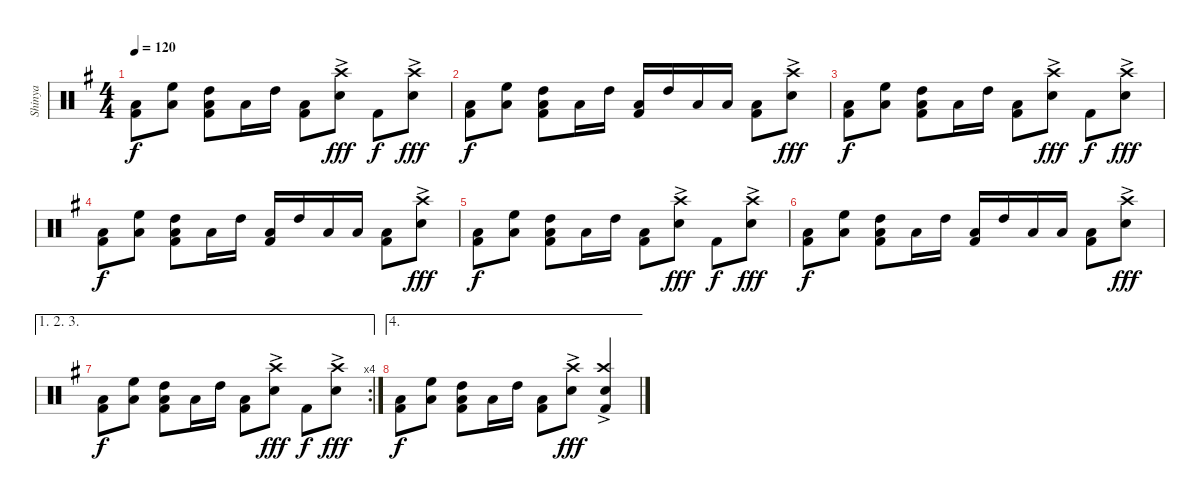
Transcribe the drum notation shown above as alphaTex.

\track ("Shinya" "Shinya") {instrument percussion}
\staff {score}
\articulation defaults
\ts (4 4)
\tempo 120
\clef neutral
\ks g
("Low Floor Tom (hit)" "Kick (hit) 2").8{dy f} ("High Floor Tom (hit)" "Low Floor Tom (hit)").8 ("High Tom (hit)" "Low Floor Tom (hit)" "Kick (hit) 2").8 "Low Floor Tom (hit)".16 "High Tom (hit)".16 ("Low Floor Tom (hit)" "Kick (hit) 2").8 ("Crash high (hit)"{ac} "Snare (hit) 2").8{dy fff} "Kick (hit) 2".8{dy f} ("Crash high (hit)"{ac} "Snare (hit) 2").8{dy fff} |
("Low Floor Tom (hit)" "Kick (hit) 2").8{dy f} ("High Floor Tom (hit)" "Low Floor Tom (hit)").8 ("High Tom (hit)" "Low Floor Tom (hit)" "Kick (hit) 2").8 "Low Floor Tom (hit)".16 "High Tom (hit)".16 ("Low Floor Tom (hit)" "Kick (hit) 2").16 "High Tom (hit)".16 "Low Floor Tom (hit)".16 "Low Floor Tom (hit)".16 ("Low Floor Tom (hit)" "Kick (hit) 2").8 ("Crash high (hit)"{ac} "Snare (hit) 2").8{dy fff} |
("Low Floor Tom (hit)" "Kick (hit) 2").8{dy f} ("High Floor Tom (hit)" "Low Floor Tom (hit)").8 ("High Tom (hit)" "Low Floor Tom (hit)" "Kick (hit) 2").8 "Low Floor Tom (hit)".16 "High Tom (hit)".16 ("Low Floor Tom (hit)" "Kick (hit) 2").8 ("Crash high (hit)"{ac} "Snare (hit) 2").8{dy fff} "Kick (hit) 2".8{dy f} ("Crash high (hit)"{ac} "Snare (hit) 2").8{dy fff} |
("Low Floor Tom (hit)" "Kick (hit) 2").8{dy f} ("High Floor Tom (hit)" "Low Floor Tom (hit)").8 ("High Tom (hit)" "Low Floor Tom (hit)" "Kick (hit) 2").8 "Low Floor Tom (hit)".16 "High Tom (hit)".16 ("Low Floor Tom (hit)" "Kick (hit) 2").16 "High Tom (hit)".16 "Low Floor Tom (hit)".16 "Low Floor Tom (hit)".16 ("Low Floor Tom (hit)" "Kick (hit) 2").8 ("Crash high (hit)"{ac} "Snare (hit) 2").8{dy fff} |
("Low Floor Tom (hit)" "Kick (hit) 2").8{dy f} ("High Floor Tom (hit)" "Low Floor Tom (hit)").8 ("High Tom (hit)" "Low Floor Tom (hit)" "Kick (hit) 2").8 "Low Floor Tom (hit)".16 "High Tom (hit)".16 ("Low Floor Tom (hit)" "Kick (hit) 2").8 ("Crash high (hit)"{ac} "Snare (hit) 2").8{dy fff} "Kick (hit) 2".8{dy f} ("Crash high (hit)"{ac} "Snare (hit) 2").8{dy fff} |
("Low Floor Tom (hit)" "Kick (hit) 2").8{dy f} ("High Floor Tom (hit)" "Low Floor Tom (hit)").8 ("High Tom (hit)" "Low Floor Tom (hit)" "Kick (hit) 2").8 "Low Floor Tom (hit)".16 "High Tom (hit)".16 ("Low Floor Tom (hit)" "Kick (hit) 2").16 "High Tom (hit)".16 "Low Floor Tom (hit)".16 "Low Floor Tom (hit)".16 ("Low Floor Tom (hit)" "Kick (hit) 2").8 ("Crash high (hit)"{ac} "Snare (hit) 2").8{dy fff} |
\ae (1 2 3)
\rc 4
("Low Floor Tom (hit)" "Kick (hit) 2").8{dy f} ("High Floor Tom (hit)" "Low Floor Tom (hit)").8 ("High Tom (hit)" "Low Floor Tom (hit)" "Kick (hit) 2").8 "Low Floor Tom (hit)".16 "High Tom (hit)".16 ("Low Floor Tom (hit)" "Kick (hit) 2").8 ("Crash high (hit)"{ac} "Snare (hit) 2").8{dy fff} "Kick (hit) 2".8{dy f} ("Crash high (hit)"{ac} "Snare (hit) 2").8{dy fff} |
\ae 4
("Low Floor Tom (hit)" "Kick (hit) 2").8{dy f} ("High Floor Tom (hit)" "Low Floor Tom (hit)").8 ("High Tom (hit)" "Low Floor Tom (hit)" "Kick (hit) 2").8 "Low Floor Tom (hit)".16 "High Tom (hit)".16 ("Low Floor Tom (hit)" "Kick (hit) 2").8 ("Crash high (hit)"{ac} "Snare (hit) 2").8{dy fff} ("Crash high (hit)"{ac} "Snare (hit) 2" "Kick (hit) 2").4
